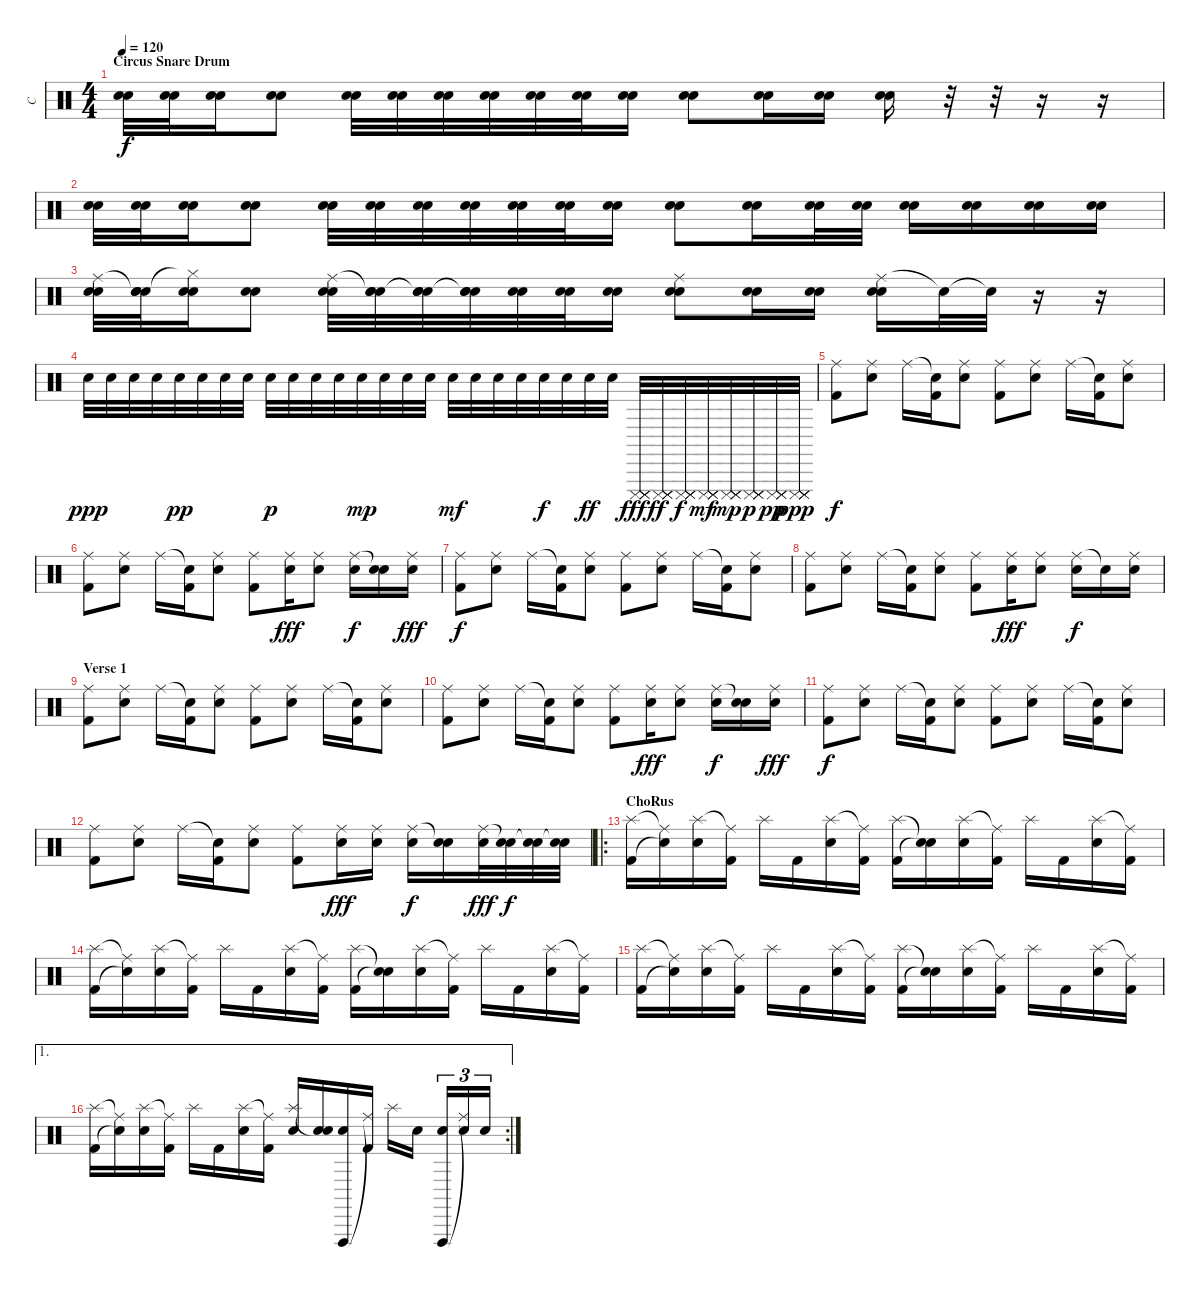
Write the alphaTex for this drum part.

\track ("C" "C") {instrument percussion}
\staff {score}
\articulation defaults
\ts (4 4)
\section ("" "Circus Snare Drum")
\tempo 120
\clef neutral
\ks c
("Electric Snare (hit)" "Electric Snare (hit)").32{dy f} ("Electric Snare (hit)" "Electric Snare (hit)").32 ("Electric Snare (hit)" "Electric Snare (hit)").16 ("Electric Snare (hit)" "Electric Snare (hit)").8 ("Electric Snare (hit)" "Electric Snare (hit)").32 ("Electric Snare (hit)" "Electric Snare (hit)").32 ("Electric Snare (hit)" "Electric Snare (hit)").32 ("Electric Snare (hit)" "Electric Snare (hit)").32 ("Electric Snare (hit)" "Electric Snare (hit)").32 ("Electric Snare (hit)" "Electric Snare (hit)").32 ("Electric Snare (hit)" "Electric Snare (hit)").16 ("Electric Snare (hit)" "Electric Snare (hit)").8 ("Electric Snare (hit)" "Electric Snare (hit)").16 ("Electric Snare (hit)" "Electric Snare (hit)").16 ("Electric Snare (hit)" "Electric Snare (hit)").16 r.32 r.32 r.16 r.16 |
("Electric Snare (hit)" "Electric Snare (hit)").32 ("Electric Snare (hit)" "Electric Snare (hit)").32 ("Electric Snare (hit)" "Electric Snare (hit)").16 ("Electric Snare (hit)" "Electric Snare (hit)").8 ("Electric Snare (hit)" "Electric Snare (hit)").32 ("Electric Snare (hit)" "Electric Snare (hit)").32 ("Electric Snare (hit)" "Electric Snare (hit)").32 ("Electric Snare (hit)" "Electric Snare (hit)").32 ("Electric Snare (hit)" "Electric Snare (hit)").32 ("Electric Snare (hit)" "Electric Snare (hit)").32 ("Electric Snare (hit)" "Electric Snare (hit)").16 ("Electric Snare (hit)" "Electric Snare (hit)").8 ("Electric Snare (hit)" "Electric Snare (hit)").16 ("Electric Snare (hit)" "Electric Snare (hit)").32 ("Electric Snare (hit)" "Electric Snare (hit)").32 ("Electric Snare (hit)" "Electric Snare (hit)").16 ("Electric Snare (hit)" "Electric Snare (hit)").16 ("Electric Snare (hit)" "Electric Snare (hit)").16 ("Electric Snare (hit)" "Electric Snare (hit)").16 |
("Ride (middle)" "Electric Snare (hit)" "Electric Snare (hit)").32 ("Snare (hit)"{t} "Electric Snare (hit)" "Electric Snare (hit)").32 ("Hi-Hat (closed)"{t} "Electric Snare (hit)" "Electric Snare (hit)").16 ("Electric Snare (hit)" "Electric Snare (hit)").8 ("Ride (middle)" "Electric Snare (hit)" "Electric Snare (hit)").32 ("Snare (hit)"{t} "Electric Snare (hit)" "Electric Snare (hit)").32 ("Snare (hit)"{t} "Electric Snare (hit)" "Electric Snare (hit)").32 ("Snare (hit)"{t} "Electric Snare (hit)" "Electric Snare (hit)").32 ("Electric Snare (hit)" "Electric Snare (hit)").32 ("Electric Snare (hit)" "Electric Snare (hit)").32 ("Electric Snare (hit)" "Electric Snare (hit)").16 ("Ride (middle)" "Electric Snare (hit)" "Electric Snare (hit)").8 ("Electric Snare (hit)" "Electric Snare (hit)").16 ("Electric Snare (hit)" "Electric Snare (hit)").16 ("Ride (middle)" "Electric Snare (hit)" "Electric Snare (hit)").16 "Snare (hit)"{t}.32 "Snare (hit)"{t}.32 r.16 r.16 |
"Electric Snare (hit)".32{dy ppp} "Electric Snare (hit)".32 "Electric Snare (hit)".32 "Electric Snare (hit)".32 "Electric Snare (hit)".32{dy pp} "Electric Snare (hit)".32 "Electric Snare (hit)".32 "Electric Snare (hit)".32 "Electric Snare (hit)".32{dy p} "Electric Snare (hit)".32 "Electric Snare (hit)".32 "Electric Snare (hit)".32 "Electric Snare (hit)".32{dy mp} "Electric Snare (hit)".32 "Electric Snare (hit)".32 "Electric Snare (hit)".32 "Electric Snare (hit)".32{dy mf} "Electric Snare (hit)".32 "Electric Snare (hit)".32 "Electric Snare (hit)".32 "Electric Snare (hit)".32{dy f} "Electric Snare (hit)".32 "Electric Snare (hit)".32{dy ff} "Electric Snare (hit)".32 ("Cuica (mute)" "Cuica (mute)" "Cuica (mute)" "Cuica (mute)").32{dy fff} ("Cuica (mute)" "Cuica (mute)" "Cuica (mute)" "Cuica (mute)").32{dy ff} ("Cuica (mute)" "Cuica (mute)" "Cuica (mute)" "Cuica (mute)").32{dy f} ("Cuica (mute)" "Cuica (mute)" "Cuica (mute)" "Cuica (mute)").32{dy mf} ("Cuica (mute)" "Cuica (mute)" "Cuica (mute)" "Cuica (mute)").32{dy mp} ("Cuica (mute)" "Cuica (mute)" "Cuica (mute)" "Cuica (mute)").32{dy p} ("Cuica (mute)" "Cuica (mute)" "Cuica (mute)" "Cuica (mute)").32{dy pp} ("Cuica (mute)" "Cuica (mute)" "Cuica (mute)" "Cuica (mute)").32{dy ppp} |
("Ride (middle)" "Kick (hit) 2").8{dy f} ("Ride (middle)" "Electric Snare (hit)").8 "Ride (middle)".16 ("Snare (hit)"{t} "Kick (hit) 2").16 ("Ride (middle)" "Electric Snare (hit)").8 ("Ride (middle)" "Kick (hit) 2").8 ("Ride (middle)" "Electric Snare (hit)").8 "Ride (middle)".16 ("Snare (hit)"{t} "Kick (hit) 2").16 ("Ride (middle)" "Electric Snare (hit)").8 |
("Ride (middle)" "Kick (hit) 2").8 ("Ride (middle)" "Electric Snare (hit)").8 "Ride (middle)".16 ("Snare (hit)"{t} "Kick (hit) 2").16 ("Ride (middle)" "Electric Snare (hit)").8 ("Ride (middle)" "Kick (hit) 2").8 ("Ride (middle)" "Electric Snare (hit)").16{dy fff} ("Ride (middle)" "Electric Snare (hit)").8 ("Ride (middle)" "Electric Snare (hit)").16{dy f} ("Snare (hit)"{t} "Electric Snare (hit)").16 ("Ride (middle)" "Electric Snare (hit)").16{dy fff} |
("Ride (middle)" "Kick (hit) 2").8{dy f} ("Ride (middle)" "Electric Snare (hit)").8 "Ride (middle)".16 ("Snare (hit)"{t} "Kick (hit) 2").16 ("Ride (middle)" "Electric Snare (hit)").8 ("Ride (middle)" "Kick (hit) 2").8 ("Ride (middle)" "Electric Snare (hit)").8 "Ride (middle)".16 ("Snare (hit)"{t} "Kick (hit) 2").16 ("Ride (middle)" "Electric Snare (hit)").8 |
("Ride (middle)" "Kick (hit) 2").8 ("Ride (middle)" "Electric Snare (hit)").8 "Ride (middle)".16 ("Snare (hit)"{t} "Kick (hit) 2").16 ("Ride (middle)" "Electric Snare (hit)").8 ("Ride (middle)" "Kick (hit) 2").8 ("Ride (middle)" "Electric Snare (hit)").16{dy fff} ("Ride (middle)" "Electric Snare (hit)").8 ("Ride (middle)" "Electric Snare (hit)").16{dy f} "Snare (hit)"{t}.16 ("Ride (middle)" "Electric Snare (hit)").16 |
\section ("" "Verse 1")
("Ride (middle)" "Kick (hit) 2").8 ("Ride (middle)" "Electric Snare (hit)").8 "Ride (middle)".16 ("Snare (hit)"{t} "Kick (hit) 2").16 ("Ride (middle)" "Electric Snare (hit)").8 ("Ride (middle)" "Kick (hit) 2").8 ("Ride (middle)" "Electric Snare (hit)").8 "Ride (middle)".16 ("Snare (hit)"{t} "Kick (hit) 2").16 ("Ride (middle)" "Electric Snare (hit)").8 |
("Ride (middle)" "Kick (hit) 2").8 ("Ride (middle)" "Electric Snare (hit)").8 "Ride (middle)".16 ("Snare (hit)"{t} "Kick (hit) 2").16 ("Ride (middle)" "Electric Snare (hit)").8 ("Ride (middle)" "Kick (hit) 2").8 ("Ride (middle)" "Electric Snare (hit)").16{dy fff} ("Ride (middle)" "Electric Snare (hit)").8 ("Ride (middle)" "Electric Snare (hit)").16{dy f} ("Snare (hit)"{t} "Electric Snare (hit)").16 ("Ride (middle)" "Electric Snare (hit)").16{dy fff} |
("Ride (middle)" "Kick (hit) 2").8{dy f} ("Ride (middle)" "Electric Snare (hit)").8 "Ride (middle)".16 ("Snare (hit)"{t} "Kick (hit) 2").16 ("Ride (middle)" "Electric Snare (hit)").8 ("Ride (middle)" "Kick (hit) 2").8 ("Ride (middle)" "Electric Snare (hit)").8 "Ride (middle)".16 ("Snare (hit)"{t} "Kick (hit) 2").16 ("Ride (middle)" "Electric Snare (hit)").8 |
("Ride (middle)" "Kick (hit) 2").8 ("Ride (middle)" "Electric Snare (hit)").8 "Ride (middle)".16 ("Snare (hit)"{t} "Kick (hit) 2").16 ("Ride (middle)" "Electric Snare (hit)").8 ("Ride (middle)" "Kick (hit) 2").8 ("Ride (middle)" "Electric Snare (hit)").16{dy fff} ("Ride (middle)" "Electric Snare (hit)").16 ("Ride (middle)" "Electric Snare (hit)").16{dy f} ("Snare (hit)"{t} "Electric Snare (hit)").16 ("Ride (middle)" "Electric Snare (hit)").32{dy fff} ("Snare (hit)"{t} "Electric Snare (hit)").32{dy f} ("Snare (hit)"{t} "Electric Snare (hit)").32 ("Snare (hit)"{t} "Electric Snare (hit)").32 |
\ro
\section ("" "ChoRus")
("Splash (hit)" "Kick (hit) 2").16 ("Ride (middle)"{t} "Snare (hit)"{t}).16 ("Splash (hit)" "Electric Snare (hit)").16 ("Ride (middle)"{t} "Kick (hit) 2").16 "Splash (hit)".16 "Kick (hit) 2".16 ("Splash (hit)" "Electric Snare (hit)").16 ("Ride (middle)"{t} "Kick (hit) 2").16 ("Splash (hit)" "Kick (hit) 2").16 ("Snare (hit)"{t} "Snare (hit)"{t}).16 ("Splash (hit)" "Electric Snare (hit)").16 ("Ride (middle)"{t} "Kick (hit) 2").16 "Splash (hit)".16 "Kick (hit) 2".16 ("Splash (hit)" "Electric Snare (hit)").16 ("Ride (middle)"{t} "Kick (hit) 2").16 |
("Splash (hit)" "Kick (hit) 2").16 ("Ride (middle)"{t} "Snare (hit)"{t}).16 ("Splash (hit)" "Electric Snare (hit)").16 ("Ride (middle)"{t} "Kick (hit) 2").16 "Splash (hit)".16 "Kick (hit) 2".16 ("Splash (hit)" "Electric Snare (hit)").16 ("Ride (middle)"{t} "Kick (hit) 2").16 ("Splash (hit)" "Kick (hit) 2").16 ("Snare (hit)"{t} "Snare (hit)"{t}).16 ("Splash (hit)" "Electric Snare (hit)").16 ("Ride (middle)"{t} "Kick (hit) 2").16 "Splash (hit)".16 "Kick (hit) 2".16 ("Splash (hit)" "Electric Snare (hit)").16 ("Ride (middle)"{t} "Kick (hit) 2").16 |
("Splash (hit)" "Kick (hit) 2").16 ("Ride (middle)"{t} "Snare (hit)"{t}).16 ("Splash (hit)" "Electric Snare (hit)").16 ("Ride (middle)"{t} "Kick (hit) 2").16 "Splash (hit)".16 "Kick (hit) 2".16 ("Splash (hit)" "Electric Snare (hit)").16 ("Ride (middle)"{t} "Kick (hit) 2").16 ("Splash (hit)" "Kick (hit) 2").16 ("Snare (hit)"{t} "Snare (hit)"{t}).16 ("Splash (hit)" "Electric Snare (hit)").16 ("Ride (middle)"{t} "Kick (hit) 2").16 "Splash (hit)".16 "Kick (hit) 2".16 ("Splash (hit)" "Electric Snare (hit)").16 ("Ride (middle)"{t} "Kick (hit) 2").16 |
\ae 1
\rc 2
("Splash (hit)" "Kick (hit) 2").16 ("Ride (middle)"{t} "Snare (hit)"{t}).16 ("Splash (hit)" "Electric Snare (hit)").16 ("Ride (middle)"{t} "Kick (hit) 2").16 "Splash (hit)".16 "Kick (hit) 2".16 ("Splash (hit)" "Electric Snare (hit)").16 ("Ride (middle)"{t} "Kick (hit) 2").16 ("Splash (hit)" "Electric Snare (hit)").16 ("Snare (hit)"{t} "Electric Snare (hit)").16 ("Vibraslap (hit)" "Electric Snare (hit)").16 ("Ride (middle)"{t} "Kick (hit) 2").16 "Splash (hit)".16 "Electric Snare (hit)".16 ("Vibraslap (hit)" "Electric Snare (hit)").16{tu (3 2)} ("Ride (middle)"{t} "Electric Snare (hit)").16{tu (3 2)} "Electric Snare (hit)".16{tu (3 2)}
